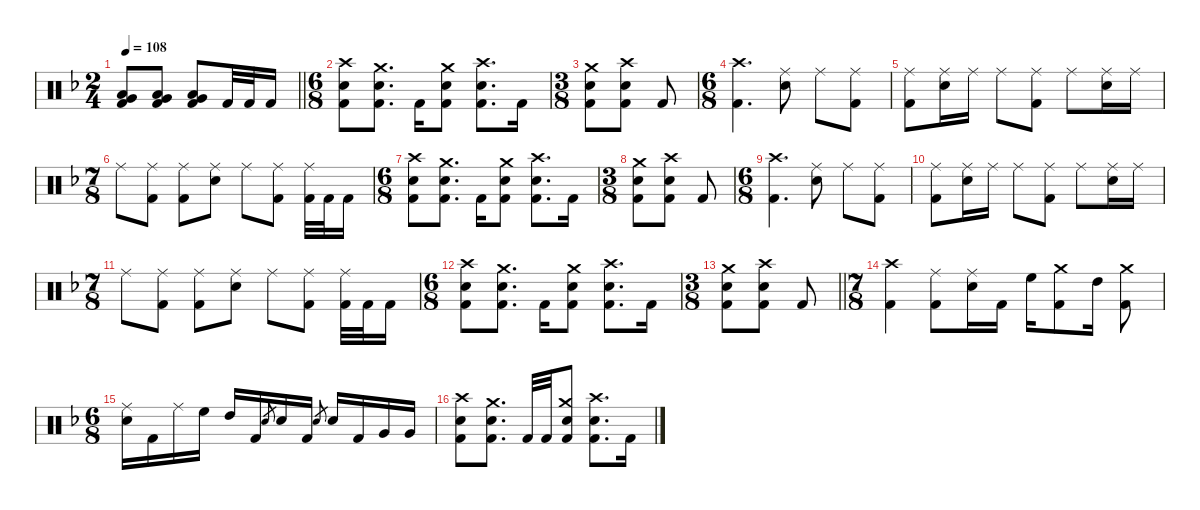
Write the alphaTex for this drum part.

\defaultSystemsLayout 4
\hideDynamics
\bracketExtendMode nobrackets
\singleTrackTrackNamePolicy hidden
\multiTrackTrackNamePolicy hidden
\firstSystemTrackNameMode fullname
\firstSystemTrackNameOrientation horizontal
\otherSystemsTrackNameOrientation horizontal
\track ("Danny Carey" "drm.") {defaultSystemsLayout 4 instrument percussion}
\staff {score}
\articulation defaults
\ts (2 4)
\beaming (8 2 2 2 2)
\tempo 108
\clef neutral
\barLineRight lightlight
\ks dminor
("Very Low Tom (hit)"{acc forcenatural} "Low Floor Tom (hit)"{acc forcenatural} "Kick (hit) 2"{acc forcenatural}).8{dy f beam Up} ("Very Low Tom (hit)"{acc forcenatural} "Low Floor Tom (hit)"{acc forcenatural} "Kick (hit) 2"{acc forcenatural}).8{beam Up} ("Very Low Tom (hit)"{acc forcenatural} "Low Floor Tom (hit)"{acc forcenatural} "Kick (hit) 2"{acc forcenatural}).8{beam Up} "Kick (hit) 2"{acc forcenatural}.32{beam Up} "Kick (hit) 2"{acc forcenatural}.32{beam Up} "Kick (hit) 2"{acc forcenatural}.16{beam Up} |
\ts (6 8)
\beaming (8 2 2 2 2)
("Crash high (hit)"{acc forcenatural} "Snare (hit) 2"{acc forcenatural} "Kick (hit) 2"{acc forcenatural}).8{beam Down} ("Crash medium (hit)"{acc forcenatural} "Snare (hit) 2"{acc forcenatural} "Kick (hit) 2"{acc forcenatural}).8{d beam Down} "Kick (hit) 2"{acc forcenatural}.16{beam Down} ("Crash medium (hit)"{acc forcenatural} "Snare (hit) 2"{acc forcenatural} "Kick (hit) 2"{acc forcenatural}).8{beam Down} ("Crash high (hit)"{acc forcenatural} "Snare (hit) 2"{acc forcenatural} "Kick (hit) 2"{acc forcenatural}).8{d beam Down} "Kick (hit) 2"{acc forcenatural}.16{beam Down} |
\ts (3 8)
\beaming (8 2 2 2 2)
("Crash medium (hit)"{acc forcenatural} "Snare (hit) 2"{acc forcenatural} "Kick (hit) 2"{acc forcenatural}).8{beam Down} ("Crash high (hit)"{acc forcenatural} "Snare (hit) 2"{acc forcenatural} "Kick (hit) 2"{acc forcenatural}).8{beam Down} "Kick (hit) 2"{acc forcenatural}.8{beam Up} |
\ts (6 8)
\beaming (8 2 2 2 2)
("Crash high (hit)"{acc forcenatural} "Kick (hit) 2"{acc forcenatural}).4{d beam Down} ("Ride (middle)"{acc forcenatural} "Snare (hit) 2"{acc forcenatural}).8{beam Down} "Ride (middle)"{acc forcenatural}.8{beam Down} ("Ride (middle)"{acc forcenatural} "Kick (hit) 2"{acc forcenatural}).8{beam Down} |
("Ride (middle)"{acc forcenatural} "Kick (hit) 2"{acc forcenatural}).8{beam Down} ("Ride (middle)"{acc forcenatural} "Snare (hit) 2"{acc forcenatural}).16{beam Down} "Ride (middle)"{acc forcenatural}.16{beam Down} "Ride (middle)"{acc forcenatural}.8{beam Down} ("Ride (middle)"{acc forcenatural} "Kick (hit) 2"{acc forcenatural}).8{beam Down} "Ride (middle)"{acc forcenatural}.8{beam Down} ("Ride (middle)"{acc forcenatural} "Snare (hit) 2"{acc forcenatural}).16{beam Down} "Ride (middle)"{acc forcenatural}.16{beam Down} |
\ts (7 8)
\beaming (8 2 2 2 2)
"Ride (middle)"{acc forcenatural}.8{beam Down} ("Ride (middle)"{acc forcenatural} "Kick (hit) 2"{acc forcenatural}).8{beam Down} ("Ride (middle)"{acc forcenatural} "Kick (hit) 2"{acc forcenatural}).8{beam Down} ("Ride (middle)"{acc forcenatural} "Snare (hit) 2"{acc forcenatural}).8{beam Down} "Ride (middle)"{acc forcenatural}.8{beam Down} ("Ride (middle)"{acc forcenatural} "Kick (hit) 2"{acc forcenatural}).8{beam Down} ("Ride (middle)"{acc forcenatural} "Kick (hit) 2"{acc forcenatural}).32{beam Down} "Kick (hit) 2"{acc forcenatural}.32{beam Down} "Kick (hit) 2"{acc forcenatural}.16{beam Down} |
\ts (6 8)
\beaming (8 2 2 2 2)
("Crash high (hit)"{acc forcenatural} "Snare (hit) 2"{acc forcenatural} "Kick (hit) 2"{acc forcenatural}).8{beam Down} ("Crash medium (hit)"{acc forcenatural} "Snare (hit) 2"{acc forcenatural} "Kick (hit) 2"{acc forcenatural}).8{d beam Down} "Kick (hit) 2"{acc forcenatural}.16{beam Down} ("Crash medium (hit)"{acc forcenatural} "Snare (hit) 2"{acc forcenatural} "Kick (hit) 2"{acc forcenatural}).8{beam Down} ("Crash high (hit)"{acc forcenatural} "Snare (hit) 2"{acc forcenatural} "Kick (hit) 2"{acc forcenatural}).8{d beam Down} "Kick (hit) 2"{acc forcenatural}.16{beam Down} |
\ts (3 8)
\beaming (8 2 2 2 2)
("Crash medium (hit)"{acc forcenatural} "Snare (hit) 2"{acc forcenatural} "Kick (hit) 2"{acc forcenatural}).8{beam Down} ("Crash high (hit)"{acc forcenatural} "Snare (hit) 2"{acc forcenatural} "Kick (hit) 2"{acc forcenatural}).8{beam Down} "Kick (hit) 2"{acc forcenatural}.8{beam Up} |
\ts (6 8)
\beaming (8 2 2 2 2)
("Crash high (hit)"{acc forcenatural} "Kick (hit) 2"{acc forcenatural}).4{d beam Down} ("Ride (middle)"{acc forcenatural} "Snare (hit) 2"{acc forcenatural}).8{beam Down} "Ride (middle)"{acc forcenatural}.8{beam Down} ("Ride (middle)"{acc forcenatural} "Kick (hit) 2"{acc forcenatural}).8{beam Down} |
("Ride (middle)"{acc forcenatural} "Kick (hit) 2"{acc forcenatural}).8{beam Down} ("Ride (middle)"{acc forcenatural} "Snare (hit) 2"{acc forcenatural}).16{beam Down} "Ride (middle)"{acc forcenatural}.16{beam Down} "Ride (middle)"{acc forcenatural}.8{beam Down} ("Ride (middle)"{acc forcenatural} "Kick (hit) 2"{acc forcenatural}).8{beam Down} "Ride (middle)"{acc forcenatural}.8{beam Down} ("Ride (middle)"{acc forcenatural} "Snare (hit) 2"{acc forcenatural}).16{beam Down} "Ride (middle)"{acc forcenatural}.16{beam Down} |
\ts (7 8)
\beaming (8 2 2 2 2)
"Ride (middle)"{acc forcenatural}.8{beam Down} ("Ride (middle)"{acc forcenatural} "Kick (hit) 2"{acc forcenatural}).8{beam Down} ("Ride (middle)"{acc forcenatural} "Kick (hit) 2"{acc forcenatural}).8{beam Down} ("Ride (middle)"{acc forcenatural} "Snare (hit) 2"{acc forcenatural}).8{beam Down} "Ride (middle)"{acc forcenatural}.8{beam Down} ("Ride (middle)"{acc forcenatural} "Kick (hit) 2"{acc forcenatural}).8{beam Down} ("Ride (middle)"{acc forcenatural} "Kick (hit) 2"{acc forcenatural}).32{beam Down} "Kick (hit) 2"{acc forcenatural}.32{beam Down} "Kick (hit) 2"{acc forcenatural}.16{beam Down} |
\ts (6 8)
\beaming (8 2 2 2 2)
("Crash high (hit)"{acc forcenatural} "Snare (hit) 2"{acc forcenatural} "Kick (hit) 2"{acc forcenatural}).8{beam Down} ("Crash medium (hit)"{acc forcenatural} "Snare (hit) 2"{acc forcenatural} "Kick (hit) 2"{acc forcenatural}).8{d beam Down} "Kick (hit) 2"{acc forcenatural}.16{beam Down} ("Crash medium (hit)"{acc forcenatural} "Snare (hit) 2"{acc forcenatural} "Kick (hit) 2"{acc forcenatural}).8{beam Down} ("Crash high (hit)"{acc forcenatural} "Snare (hit) 2"{acc forcenatural} "Kick (hit) 2"{acc forcenatural}).8{d beam Down} "Kick (hit) 2"{acc forcenatural}.16{beam Down} |
\ts (3 8)
\beaming (8 2 2 2 2)
\barLineRight lightlight
("Crash medium (hit)"{acc forcenatural} "Snare (hit) 2"{acc forcenatural} "Kick (hit) 2"{acc forcenatural}).8{beam Down} ("Crash high (hit)"{acc forcenatural} "Snare (hit) 2"{acc forcenatural} "Kick (hit) 2"{acc forcenatural}).8{beam Down} "Kick (hit) 2"{acc forcenatural}.8{beam Up} |
\ts (7 8)
\beaming (8 2 2 2 2)
("Crash high (hit)"{acc forcenatural} "Kick (hit) 2"{acc forcenatural}).4{beam Down} ("Ride (middle)"{acc forcenatural} "Kick (hit) 2"{acc forcenatural}).8{beam Down} ("Ride (middle)"{acc forcenatural} "Snare (hit) 2"{acc forcenatural}).16{beam Down} "Kick (hit) 2"{acc forcenatural}.16{beam Down} "High Floor Tom (hit)"{acc forcenatural}.16{beam Down} ("Crash medium (hit)"{acc forcenatural} "Kick (hit) 2"{acc forcenatural}).8{beam Down} "High Tom (hit)"{acc forcenatural}.16{beam Down} ("Crash medium (hit)"{acc forcenatural} "Kick (hit) 2"{acc forcenatural}).8{beam Down} |
\ts (6 8)
\beaming (8 2 2 2 2)
("Ride (middle)"{acc forcenatural} "Snare (hit) 2"{acc forcenatural}).16{beam Down} "Kick (hit) 2"{acc forcenatural}.16{beam Down} "Ride (middle)"{acc forcenatural}.16{beam Down} "High Floor Tom (hit)"{acc forcenatural}.16{beam Down} "High Tom (hit)"{acc forcenatural}.16{beam Up} "Kick (hit) 2"{acc forcenatural}.16{beam Up} "Electric Snare (hit)"{acc forcenatural}.8{gr dy mf beam Up} "Snare (hit) 2"{acc forcenatural}.16{dy f beam Up} "Kick (hit) 2"{acc forcenatural}.16{beam Up} "Electric Snare (hit)"{acc forcenatural}.8{gr dy mf beam Up} "Snare (hit) 2"{acc forcenatural}.16{dy f beam Up} "Kick (hit) 2"{acc forcenatural}.16{beam Up} "Very Low Tom (hit)"{acc forcenatural}.16{beam Up} "Very Low Tom (hit)"{acc forcenatural}.16{beam Up} |
("Crash high (hit)"{acc forcenatural} "Snare (hit) 2"{acc forcenatural} "Kick (hit) 2"{acc forcenatural}).8{beam Down} ("Crash medium (hit)"{acc forcenatural} "Snare (hit) 2"{acc forcenatural} "Kick (hit) 2"{acc forcenatural}).8{d beam Down} "Kick (hit) 2"{acc forcenatural}.32{beam Up} "Kick (hit) 2"{acc forcenatural}.32{beam Up} ("Crash medium (hit)"{acc forcenatural} "Snare (hit) 2"{acc forcenatural} "Kick (hit) 2"{acc forcenatural}).8{beam Up} ("Crash high (hit)"{acc forcenatural} "Snare (hit) 2"{acc forcenatural} "Kick (hit) 2"{acc forcenatural}).8{d beam Down} "Kick (hit) 2"{acc forcenatural}.16{beam Down}
